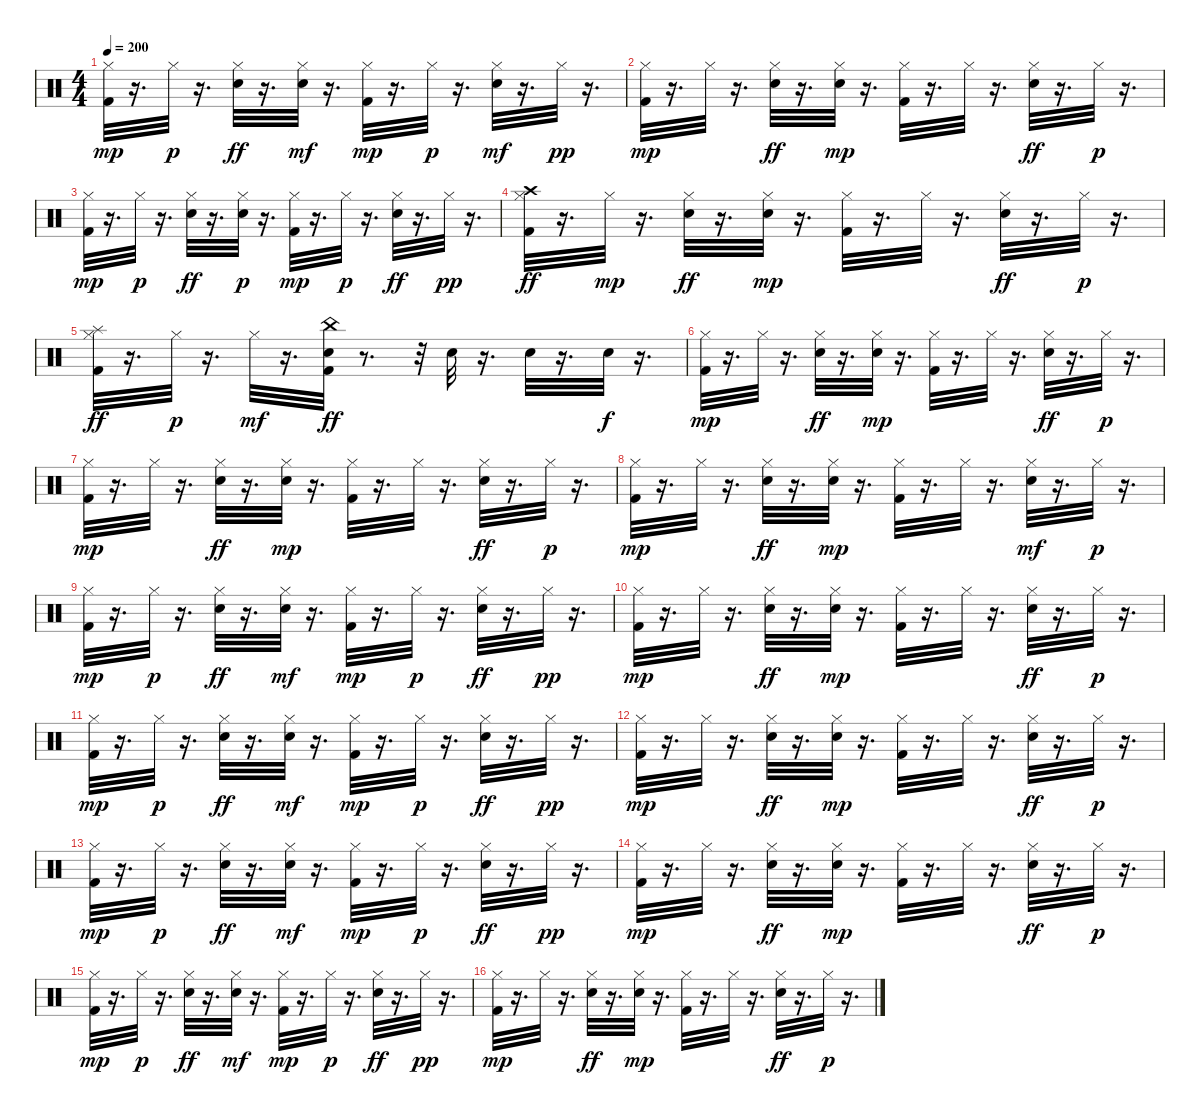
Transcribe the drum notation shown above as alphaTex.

\track "" {instrument percussion}
\staff {score}
\articulation defaults
\ts (4 4)
\tempo 200
\clef neutral
\ks c
("Kick (hit) 2" "Hi-Hat (closed)").32{dy mp} r.16{d} "Hi-Hat (closed)".32{dy p} r.16{d} ("Hi-Hat (closed)" "Electric Snare (hit)").32{dy ff} r.16{d} ("Hi-Hat (closed)" "Electric Snare (hit)").32{dy mf} r.16{d} ("Kick (hit) 2" "Hi-Hat (closed)").32{dy mp} r.16{d} "Hi-Hat (closed)".32{dy p} r.16{d} ("Electric Snare (hit)" "Hi-Hat (closed)").32{dy mf} r.16{d} "Hi-Hat (closed)".32{dy pp} r.16{d} |
("Kick (hit) 2" "Hi-Hat (closed)").32{dy mp} r.16{d} "Hi-Hat (closed)".32 r.16{d} ("Hi-Hat (closed)" "Electric Snare (hit)").32{dy ff} r.16{d} ("Hi-Hat (closed)" "Electric Snare (hit)").32{dy mp} r.16{d} ("Kick (hit) 2" "Hi-Hat (closed)").32 r.16{d} "Hi-Hat (closed)".32 r.16{d} ("Hi-Hat (closed)" "Electric Snare (hit)").32{dy ff} r.16{d} "Hi-Hat (closed)".32{dy p} r.16{d} |
("Kick (hit) 2" "Hi-Hat (closed)").32{dy mp} r.16{d} "Hi-Hat (closed)".32{dy p} r.16{d} ("Hi-Hat (closed)" "Electric Snare (hit)").32{dy ff} r.16{d} ("Electric Snare (hit)" "Hi-Hat (closed)").32{dy p} r.16{d} ("Kick (hit) 2" "Hi-Hat (closed)").32{dy mp} r.16{d} "Hi-Hat (closed)".32{dy p} r.16{d} ("Hi-Hat (closed)" "Electric Snare (hit)").32{dy ff} r.16{d} "Hi-Hat (closed)".32{dy pp} r.16{d} |
("Kick (hit) 2" "Hi-Hat (closed)" "Crash high (hit)").32{dy ff} r.16{d} "Hi-Hat (closed)".32{dy mp} r.16{d} ("Hi-Hat (closed)" "Electric Snare (hit)").32{dy ff} r.16{d} ("Hi-Hat (closed)" "Electric Snare (hit)").32{dy mp} r.16{d} ("Kick (hit) 2" "Hi-Hat (closed)").32 r.16{d} "Hi-Hat (closed)".32 r.16{d} ("Hi-Hat (closed)" "Electric Snare (hit)").32{dy ff} r.16{d} "Hi-Hat (closed)".32{dy p} r.16{d} |
("Kick (hit) 2" "Hi-Hat (closed)" "Splash (hit)").32{dy ff} r.16{d} "Hi-Hat (closed)".32{dy p} r.16{d} "Hi-Hat (closed)".32{dy mf} r.16{d} ("Kick (hit) 2" "Electric Snare (hit)" "China (hit)").32{dy ff} r.8{d} r.32 "Electric Snare (hit)".32 r.16{d} "Electric Snare (hit)".32 r.16{d} "Electric Snare (hit)".32{dy f} r.16{d} |
("Kick (hit) 2" "Hi-Hat (closed)").32{dy mp} r.16{d} "Hi-Hat (closed)".32 r.16{d} ("Hi-Hat (closed)" "Electric Snare (hit)").32{dy ff} r.16{d} ("Hi-Hat (closed)" "Electric Snare (hit)").32{dy mp} r.16{d} ("Kick (hit) 2" "Hi-Hat (closed)").32 r.16{d} "Hi-Hat (closed)".32 r.16{d} ("Hi-Hat (closed)" "Electric Snare (hit)").32{dy ff} r.16{d} "Hi-Hat (closed)".32{dy p} r.16{d} |
("Kick (hit) 2" "Hi-Hat (closed)").32{dy mp} r.16{d} "Hi-Hat (closed)".32 r.16{d} ("Hi-Hat (closed)" "Electric Snare (hit)").32{dy ff} r.16{d} ("Hi-Hat (closed)" "Electric Snare (hit)").32{dy mp} r.16{d} ("Kick (hit) 2" "Hi-Hat (closed)").32 r.16{d} "Hi-Hat (closed)".32 r.16{d} ("Hi-Hat (closed)" "Electric Snare (hit)").32{dy ff} r.16{d} "Hi-Hat (closed)".32{dy p} r.16{d} |
("Kick (hit) 2" "Hi-Hat (closed)").32{dy mp} r.16{d} "Hi-Hat (closed)".32 r.16{d} ("Hi-Hat (closed)" "Electric Snare (hit)").32{dy ff} r.16{d} ("Hi-Hat (closed)" "Electric Snare (hit)").32{dy mp} r.16{d} ("Kick (hit) 2" "Hi-Hat (closed)").32 r.16{d} "Hi-Hat (closed)".32 r.16{d} ("Electric Snare (hit)" "Hi-Hat (closed)").32{dy mf} r.16{d} "Hi-Hat (closed)".32{dy p} r.16{d} |
("Kick (hit) 2" "Hi-Hat (closed)").32{dy mp} r.16{d} "Hi-Hat (closed)".32{dy p} r.16{d} ("Hi-Hat (closed)" "Electric Snare (hit)").32{dy ff} r.16{d} ("Hi-Hat (closed)" "Electric Snare (hit)").32{dy mf} r.16{d} ("Kick (hit) 2" "Hi-Hat (closed)").32{dy mp} r.16{d} "Hi-Hat (closed)".32{dy p} r.16{d} ("Hi-Hat (closed)" "Electric Snare (hit)").32{dy ff} r.16{d} "Hi-Hat (closed)".32{dy pp} r.16{d} |
("Kick (hit) 2" "Hi-Hat (closed)").32{dy mp} r.16{d} "Hi-Hat (closed)".32 r.16{d} ("Hi-Hat (closed)" "Electric Snare (hit)").32{dy ff} r.16{d} ("Electric Snare (hit)" "Hi-Hat (closed)").32{dy mp} r.16{d} ("Kick (hit) 2" "Hi-Hat (closed)").32 r.16{d} "Hi-Hat (closed)".32 r.16{d} ("Hi-Hat (closed)" "Electric Snare (hit)").32{dy ff} r.16{d} "Hi-Hat (closed)".32{dy p} r.16{d} |
("Kick (hit) 2" "Hi-Hat (closed)").32{dy mp} r.16{d} "Hi-Hat (closed)".32{dy p} r.16{d} ("Hi-Hat (closed)" "Electric Snare (hit)").32{dy ff} r.16{d} ("Hi-Hat (closed)" "Electric Snare (hit)").32{dy mf} r.16{d} ("Kick (hit) 2" "Hi-Hat (closed)").32{dy mp} r.16{d} "Hi-Hat (closed)".32{dy p} r.16{d} ("Hi-Hat (closed)" "Electric Snare (hit)").32{dy ff} r.16{d} "Hi-Hat (closed)".32{dy pp} r.16{d} |
("Kick (hit) 2" "Hi-Hat (closed)").32{dy mp} r.16{d} "Hi-Hat (closed)".32 r.16{d} ("Hi-Hat (closed)" "Electric Snare (hit)").32{dy ff} r.16{d} ("Hi-Hat (closed)" "Electric Snare (hit)").32{dy mp} r.16{d} ("Kick (hit) 2" "Hi-Hat (closed)").32 r.16{d} "Hi-Hat (closed)".32 r.16{d} ("Hi-Hat (closed)" "Electric Snare (hit)").32{dy ff} r.16{d} "Hi-Hat (closed)".32{dy p} r.16{d} |
("Kick (hit) 2" "Hi-Hat (closed)").32{dy mp} r.16{d} "Hi-Hat (closed)".32{dy p} r.16{d} ("Hi-Hat (closed)" "Electric Snare (hit)").32{dy ff} r.16{d} ("Hi-Hat (closed)" "Electric Snare (hit)").32{dy mf} r.16{d} ("Kick (hit) 2" "Hi-Hat (closed)").32{dy mp} r.16{d} "Hi-Hat (closed)".32{dy p} r.16{d} ("Hi-Hat (closed)" "Electric Snare (hit)").32{dy ff} r.16{d} "Hi-Hat (closed)".32{dy pp} r.16{d} |
("Kick (hit) 2" "Hi-Hat (closed)").32{dy mp} r.16{d} "Hi-Hat (closed)".32 r.16{d} ("Hi-Hat (closed)" "Electric Snare (hit)").32{dy ff} r.16{d} ("Hi-Hat (closed)" "Electric Snare (hit)").32{dy mp} r.16{d} ("Kick (hit) 2" "Hi-Hat (closed)").32 r.16{d} "Hi-Hat (closed)".32 r.16{d} ("Hi-Hat (closed)" "Electric Snare (hit)").32{dy ff} r.16{d} "Hi-Hat (closed)".32{dy p} r.16{d} |
("Kick (hit) 2" "Hi-Hat (closed)").32{dy mp} r.16{d} "Hi-Hat (closed)".32{dy p} r.16{d} ("Hi-Hat (closed)" "Electric Snare (hit)").32{dy ff} r.16{d} ("Hi-Hat (closed)" "Electric Snare (hit)").32{dy mf} r.16{d} ("Kick (hit) 2" "Hi-Hat (closed)").32{dy mp} r.16{d} "Hi-Hat (closed)".32{dy p} r.16{d} ("Hi-Hat (closed)" "Electric Snare (hit)").32{dy ff} r.16{d} "Hi-Hat (closed)".32{dy pp} r.16{d} |
("Kick (hit) 2" "Hi-Hat (closed)").32{dy mp} r.16{d} "Hi-Hat (closed)".32 r.16{d} ("Hi-Hat (closed)" "Electric Snare (hit)").32{dy ff} r.16{d} ("Hi-Hat (closed)" "Electric Snare (hit)").32{dy mp} r.16{d} ("Kick (hit) 2" "Hi-Hat (closed)").32 r.16{d} "Hi-Hat (closed)".32 r.16{d} ("Hi-Hat (closed)" "Electric Snare (hit)").32{dy ff} r.16{d} "Hi-Hat (closed)".32{dy p} r.16{d}
